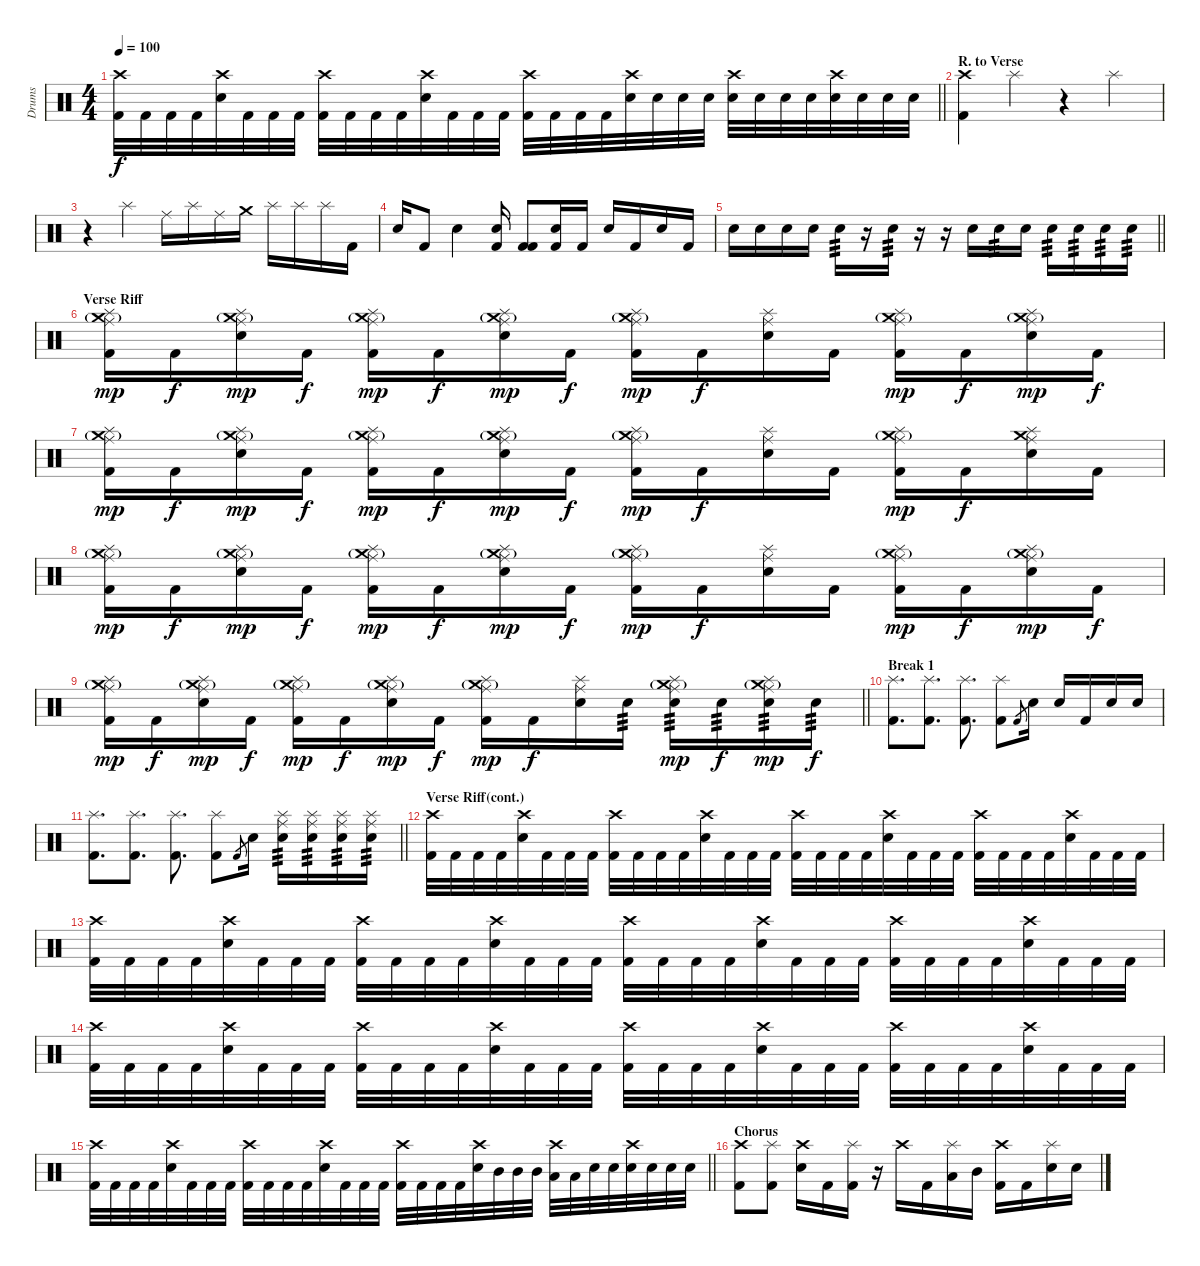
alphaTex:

\track ("Drums" "Drums") {instrument percussion}
\staff {score}
\articulation defaults
\ts (4 4)
\tempo 100
\clef neutral
\barLineRight lightlight
\ks c
("Crash high (hit)" "Kick (hit) 2").32{dy f} "Kick (hit) 2".32 "Kick (hit) 2".32 "Kick (hit) 2".32 ("Crash high (hit)" "Electric Snare (hit)").32 "Kick (hit) 2".32 "Kick (hit) 2".32 "Kick (hit) 2".32 ("Crash high (hit)" "Kick (hit) 2").32 "Kick (hit) 2".32 "Kick (hit) 2".32 "Kick (hit) 2".32 ("Crash high (hit)" "Electric Snare (hit)").32 "Kick (hit) 2".32 "Kick (hit) 2".32 "Kick (hit) 2".32 ("Crash high (hit)" "Kick (hit) 2").32 "Kick (hit) 2".32 "Kick (hit) 2".32 "Kick (hit) 2".32 ("Crash high (hit)" "Electric Snare (hit)").32 "Electric Snare (hit)".32 "Electric Snare (hit)".32 "Electric Snare (hit)".32 ("Crash high (hit)" "Electric Snare (hit)").32 "Electric Snare (hit)".32 "Electric Snare (hit)".32 "Electric Snare (hit)".32 ("Crash high (hit)" "Electric Snare (hit)").32 "Electric Snare (hit)".32 "Electric Snare (hit)".32 "Electric Snare (hit)".32 |
\section ("" "R. to Verse")
("Crash high (hit)" "Kick (hit) 2").4 "Splash (hit)".4 r.4 "Splash (hit)".4 |
r.4 "Splash (hit)".4 "Ride (middle)".16 "Splash (hit)".16 "Ride (middle)".16 "Crash medium (hit)".16 "Splash (hit)".16 "Splash (hit)".16 "Splash (hit)".16 "Kick (hit) 2".16 |
"Electric Snare (hit)".16 "Kick (hit) 2".8 "Electric Snare (hit)".4 ("Kick (hit) 2" "Electric Snare (hit)").16 ("Kick (hit) 2" "Kick (hit) 2").8 ("Electric Snare (hit)" "Kick (hit) 2").16 "Kick (hit) 2".16 "Electric Snare (hit)".16 "Kick (hit) 2".16 "Electric Snare (hit)".16 "Kick (hit) 2".16 |
\barLineRight lightlight "Electric Snare (hit)".16 "Electric Snare (hit)".16 "Electric Snare (hit)".16 "Electric Snare (hit)".16 "Electric Snare (hit)".16{tp 3}
r.16 "Electric Snare (hit)".16{tp 3} r.16 r.16 "Electric Snare (hit)".16 "Electric Snare (hit)".16{tp 3} "Electric Snare (hit)".16 "Electric Snare (hit)".16{tp 3} "Electric Snare (hit)".16{tp 3} "Electric Snare (hit)".16{tp 3} "Electric Snare (hit)".16{tp 3} |
\section ("" "Verse Riff")
("Crash medium (hit)"{g} "Splash (hit)" "Ride (middle)" "Kick (hit) 2").16{dy mp} "Kick (hit) 2".16{dy f} ("Crash medium (hit)"{g} "Splash (hit)" "Ride (middle)" "Electric Snare (hit)").16{dy mp} "Kick (hit) 2".16{dy f} ("Crash medium (hit)"{g} "Splash (hit)" "Ride (middle)" "Kick (hit) 2").16{dy mp} "Kick (hit) 2".16{dy f} ("Crash medium (hit)"{g} "Splash (hit)" "Ride (middle)" "Electric Snare (hit)").16{dy mp} "Kick (hit) 2".16{dy f} ("Crash medium (hit)"{g} "Splash (hit)" "Ride (middle)" "Kick (hit) 2").16{dy mp} "Kick (hit) 2".16{dy f} ("Ride (middle)" "Splash (hit)" "Electric Snare (hit)").16 "Kick (hit) 2".16 ("Crash medium (hit)"{g} "Splash (hit)" "Ride (middle)" "Kick (hit) 2").16{dy mp} "Kick (hit) 2".16{dy f} ("Crash medium (hit)"{g} "Splash (hit)" "Ride (middle)" "Electric Snare (hit)").16{dy mp} "Kick (hit) 2".16{dy f} |
("Crash medium (hit)"{g} "Splash (hit)" "Ride (middle)" "Kick (hit) 2").16{dy mp} "Kick (hit) 2".16{dy f} ("Crash medium (hit)"{g} "Splash (hit)" "Ride (middle)" "Electric Snare (hit)").16{dy mp} "Kick (hit) 2".16{dy f} ("Crash medium (hit)"{g} "Splash (hit)" "Ride (middle)" "Kick (hit) 2").16{dy mp} "Kick (hit) 2".16{dy f} ("Crash medium (hit)"{g} "Splash (hit)" "Ride (middle)" "Electric Snare (hit)").16{dy mp} "Kick (hit) 2".16{dy f} ("Crash medium (hit)"{g} "Splash (hit)" "Ride (middle)" "Kick (hit) 2").16{dy mp} "Kick (hit) 2".16{dy f} ("Ride (middle)" "Splash (hit)" "Electric Snare (hit)").16 "Kick (hit) 2".16 ("Crash medium (hit)"{g} "Splash (hit)" "Ride (middle)" "Kick (hit) 2").16{dy mp} "Kick (hit) 2".16{dy f} ("Crash medium (hit)" "Splash (hit)" "Ride (middle)" "Electric Snare (hit)").16 "Kick (hit) 2".16 |
("Crash medium (hit)"{g} "Splash (hit)" "Ride (middle)" "Kick (hit) 2").16{dy mp} "Kick (hit) 2".16{dy f} ("Crash medium (hit)"{g} "Splash (hit)" "Ride (middle)" "Electric Snare (hit)").16{dy mp} "Kick (hit) 2".16{dy f} ("Crash medium (hit)"{g} "Splash (hit)" "Ride (middle)" "Kick (hit) 2").16{dy mp} "Kick (hit) 2".16{dy f} ("Crash medium (hit)"{g} "Splash (hit)" "Ride (middle)" "Electric Snare (hit)").16{dy mp} "Kick (hit) 2".16{dy f} ("Crash medium (hit)"{g} "Splash (hit)" "Ride (middle)" "Kick (hit) 2").16{dy mp} "Kick (hit) 2".16{dy f} ("Ride (middle)" "Splash (hit)" "Electric Snare (hit)").16 "Kick (hit) 2".16 ("Crash medium (hit)"{g} "Splash (hit)" "Ride (middle)" "Kick (hit) 2").16{dy mp} "Kick (hit) 2".16{dy f} ("Crash medium (hit)"{g} "Splash (hit)" "Ride (middle)" "Electric Snare (hit)").16{dy mp} "Kick (hit) 2".16{dy f} |
\barLineRight lightlight
("Crash medium (hit)"{g} "Splash (hit)" "Ride (middle)" "Kick (hit) 2").16{dy mp} "Kick (hit) 2".16{dy f} ("Crash medium (hit)"{g} "Splash (hit)" "Ride (middle)" "Electric Snare (hit)").16{dy mp} "Kick (hit) 2".16{dy f} ("Crash medium (hit)"{g} "Splash (hit)" "Ride (middle)" "Kick (hit) 2").16{dy mp} "Kick (hit) 2".16{dy f} ("Crash medium (hit)"{g} "Splash (hit)" "Ride (middle)" "Electric Snare (hit)").16{dy mp} "Kick (hit) 2".16{dy f} ("Crash medium (hit)"{g} "Splash (hit)" "Ride (middle)" "Kick (hit) 2").16{dy mp} "Kick (hit) 2".16{dy f} ("Ride (middle)" "Splash (hit)" "Electric Snare (hit)").16 "Electric Snare (hit)".16{tp 3} ("Crash medium (hit)"{g} "Splash (hit)" "Ride (middle)" "Electric Snare (hit)").16{tp 3 dy mp} "Electric Snare (hit)".16{tp 3 dy f} ("Crash medium (hit)"{g} "Splash (hit)" "Ride (middle)" "Electric Snare (hit)").16{tp 3 dy mp} "Electric Snare (hit)".16{tp 3 dy f} |
\section ("" "Break 1")
("Splash (hit)" "Kick (hit) 2").8{d} ("Splash (hit)" "Kick (hit) 2").8{d} ("Splash (hit)" "Kick (hit) 2").8{d} ("Splash (hit)" "Kick (hit) 2").8 "Kick (hit) 2".8{gr} "Electric Snare (hit)".16 "Electric Snare (hit)".16 "Kick (hit) 2".16 "Electric Snare (hit)".16 "Electric Snare (hit)".16 |
\barLineRight lightlight
("Splash (hit)" "Kick (hit) 2").8{d} ("Splash (hit)" "Kick (hit) 2").8{d} ("Splash (hit)" "Kick (hit) 2").8{d} ("Splash (hit)" "Kick (hit) 2").8 "Kick (hit) 2".8{gr} "Electric Snare (hit)".16 ("Splash (hit)" "Ride (middle)" "Electric Snare (hit)").16{tp 3} ("Splash (hit)" "Ride (middle)" "Electric Snare (hit)").16{tp 3} ("Splash (hit)" "Ride (middle)" "Electric Snare (hit)").16{tp 3} ("Splash (hit)" "Ride (middle)" "Electric Snare (hit)").16{tp 3} |
\section ("" "Verse Riff(cont.)")
("Crash high (hit)" "Kick (hit) 2").32 "Kick (hit) 2".32 "Kick (hit) 2".32 "Kick (hit) 2".32 ("Crash high (hit)" "Electric Snare (hit)").32 "Kick (hit) 2".32 "Kick (hit) 2".32 "Kick (hit) 2".32 ("Crash high (hit)" "Kick (hit) 2").32 "Kick (hit) 2".32 "Kick (hit) 2".32 "Kick (hit) 2".32 ("Crash high (hit)" "Electric Snare (hit)").32 "Kick (hit) 2".32 "Kick (hit) 2".32 "Kick (hit) 2".32 ("Crash high (hit)" "Kick (hit) 2").32 "Kick (hit) 2".32 "Kick (hit) 2".32 "Kick (hit) 2".32 ("Crash high (hit)" "Electric Snare (hit)").32 "Kick (hit) 2".32 "Kick (hit) 2".32 "Kick (hit) 2".32 ("Crash high (hit)" "Kick (hit) 2").32 "Kick (hit) 2".32 "Kick (hit) 2".32 "Kick (hit) 2".32 ("Crash high (hit)" "Electric Snare (hit)").32 "Kick (hit) 2".32 "Kick (hit) 2".32 "Kick (hit) 2".32 |
("Crash high (hit)" "Kick (hit) 2").32 "Kick (hit) 2".32 "Kick (hit) 2".32 "Kick (hit) 2".32 ("Crash high (hit)" "Electric Snare (hit)").32 "Kick (hit) 2".32 "Kick (hit) 2".32 "Kick (hit) 2".32 ("Crash high (hit)" "Kick (hit) 2").32 "Kick (hit) 2".32 "Kick (hit) 2".32 "Kick (hit) 2".32 ("Crash high (hit)" "Electric Snare (hit)").32 "Kick (hit) 2".32 "Kick (hit) 2".32 "Kick (hit) 2".32 ("Crash high (hit)" "Kick (hit) 2").32 "Kick (hit) 2".32 "Kick (hit) 2".32 "Kick (hit) 2".32 ("Crash high (hit)" "Electric Snare (hit)").32 "Kick (hit) 2".32 "Kick (hit) 2".32 "Kick (hit) 2".32 ("Crash high (hit)" "Kick (hit) 2").32 "Kick (hit) 2".32 "Kick (hit) 2".32 "Kick (hit) 2".32 ("Crash high (hit)" "Electric Snare (hit)").32 "Kick (hit) 2".32 "Kick (hit) 2".32 "Kick (hit) 2".32 |
("Crash high (hit)" "Kick (hit) 2").32 "Kick (hit) 2".32 "Kick (hit) 2".32 "Kick (hit) 2".32 ("Crash high (hit)" "Electric Snare (hit)").32 "Kick (hit) 2".32 "Kick (hit) 2".32 "Kick (hit) 2".32 ("Crash high (hit)" "Kick (hit) 2").32 "Kick (hit) 2".32 "Kick (hit) 2".32 "Kick (hit) 2".32 ("Crash high (hit)" "Electric Snare (hit)").32 "Kick (hit) 2".32 "Kick (hit) 2".32 "Kick (hit) 2".32 ("Crash high (hit)" "Kick (hit) 2").32 "Kick (hit) 2".32 "Kick (hit) 2".32 "Kick (hit) 2".32 ("Crash high (hit)" "Electric Snare (hit)").32 "Kick (hit) 2".32 "Kick (hit) 2".32 "Kick (hit) 2".32 ("Crash high (hit)" "Kick (hit) 2").32 "Kick (hit) 2".32 "Kick (hit) 2".32 "Kick (hit) 2".32 ("Crash high (hit)" "Electric Snare (hit)").32 "Kick (hit) 2".32 "Kick (hit) 2".32 "Kick (hit) 2".32 |
\barLineRight lightlight
("Crash high (hit)" "Kick (hit) 2").32 "Kick (hit) 2".32 "Kick (hit) 2".32 "Kick (hit) 2".32 ("Crash high (hit)" "Electric Snare (hit)").32 "Kick (hit) 2".32 "Kick (hit) 2".32 "Kick (hit) 2".32 ("Crash high (hit)" "Kick (hit) 2").32 "Kick (hit) 2".32 "Kick (hit) 2".32 "Kick (hit) 2".32 ("Crash high (hit)" "Electric Snare (hit)").32 "Kick (hit) 2".32 "Kick (hit) 2".32 "Kick (hit) 2".32 ("Crash high (hit)" "Kick (hit) 2").32 "Kick (hit) 2".32 "Kick (hit) 2".32 "Kick (hit) 2".32 ("Crash high (hit)" "Electric Snare (hit)").32 "Mid Tom (hit)".32 "Mid Tom (hit)".32 "Mid Tom (hit)".32 ("Crash high (hit)" "Low Tom (hit)").32 "Low Tom (hit)".32 "Electric Snare (hit)".32 "Electric Snare (hit)".32 ("Crash high (hit)" "Electric Snare (hit)").32 "Electric Snare (hit)".32 "Electric Snare (hit)".32 "Electric Snare (hit)".32 |
\section ("" "Chorus")
("Crash high (hit)" "Kick (hit) 2").8 ("Splash (hit)" "Kick (hit) 2").8 ("Crash high (hit)" "Electric Snare (hit)").16 "Kick (hit) 2".16 ("Splash (hit)" "Kick (hit) 2").16 r.16 "Crash high (hit)".16 "Kick (hit) 2".16 ("Splash (hit)" "Low Tom (hit)").16 "Mid Tom (hit)".16 ("Crash high (hit)" "Kick (hit) 2").16 "Kick (hit) 2".16 ("Splash (hit)" "Electric Snare (hit)").16 "Electric Snare (hit)".16
